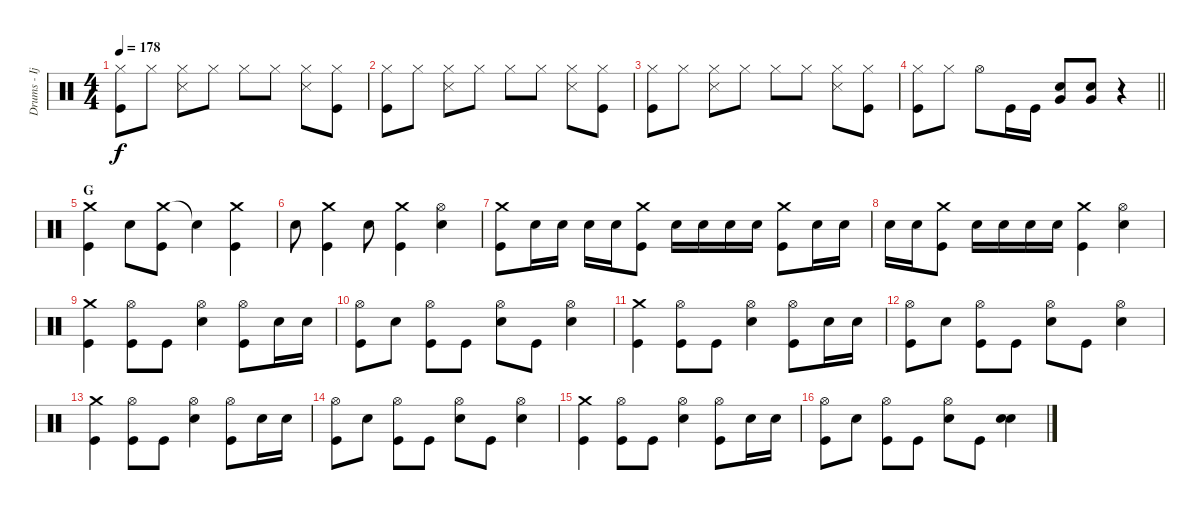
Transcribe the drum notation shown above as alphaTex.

\track ("Drums - Ijichi" "Drums - Ij") {instrument percussion}
\staff {score}
\articulation defaults
\ts (4 4)
\tempo 178
\clef neutral
\ks c
("Hi-Hat (closed)" "Kick (hit)").8{dy f} "Hi-Hat (closed)".8 ("Hi-Hat (closed)" "Snare (side stick) 3").8 "Hi-Hat (closed)".8 "Hi-Hat (closed)".8 "Hi-Hat (closed)".8 ("Hi-Hat (closed)" "Snare (side stick) 3").8 ("Hi-Hat (closed)" "Kick (hit)").8 |
("Hi-Hat (closed)" "Kick (hit)").8 "Hi-Hat (closed)".8 ("Hi-Hat (closed)" "Snare (side stick) 3").8 "Hi-Hat (closed)".8 "Hi-Hat (closed)".8 "Hi-Hat (closed)".8 ("Hi-Hat (closed)" "Snare (side stick) 3").8 ("Hi-Hat (closed)" "Kick (hit)").8 |
("Hi-Hat (closed)" "Kick (hit)").8 "Hi-Hat (closed)".8 ("Hi-Hat (closed)" "Snare (side stick) 3").8 "Hi-Hat (closed)".8 "Hi-Hat (closed)".8 "Hi-Hat (closed)".8 ("Hi-Hat (closed)" "Snare (side stick) 3").8 ("Hi-Hat (closed)" "Kick (hit)").8 |
\barLineRight lightlight
("Hi-Hat (closed)" "Kick (hit)").8 "Hi-Hat (closed)".8 "Hi-Hat (open)".8 "Kick (hit)".16 "Kick (hit)".16 ("Electric Snare (hit)" "Very Low Tom (hit)").8 ("Electric Snare (hit)" "Very Low Tom (hit)").8 r.4 |
\section ("" "G")
("Crash medium (hit)" "Kick (hit)").4 "Electric Snare (hit)".8 ("Crash medium (hit)" "Kick (hit)").8 "Snare (hit)"{t}.4 ("Crash medium (hit)" "Kick (hit)").4 |
"Electric Snare (hit)".8 ("Crash medium (hit)" "Kick (hit)").4 "Electric Snare (hit)".8 ("Crash medium (hit)" "Kick (hit)").4 ("Hi-Hat (open)" "Electric Snare (hit)").4 |
("Crash medium (hit)" "Kick (hit)").8 "Electric Snare (hit)".16 "Electric Snare (hit)".16 "Electric Snare (hit)".16 "Electric Snare (hit)".16 ("Crash medium (hit)" "Kick (hit)").8 "Electric Snare (hit)".16 "Electric Snare (hit)".16 "Electric Snare (hit)".16 "Electric Snare (hit)".16 ("Crash medium (hit)" "Kick (hit)").8 "Electric Snare (hit)".16 "Electric Snare (hit)".16 |
"Electric Snare (hit)".16 "Electric Snare (hit)".16 ("Crash medium (hit)" "Kick (hit)").8 "Electric Snare (hit)".16 "Electric Snare (hit)".16 "Electric Snare (hit)".16 "Electric Snare (hit)".16 ("Crash medium (hit)" "Kick (hit)").4 ("Hi-Hat (open)" "Electric Snare (hit)").4 |
("Crash medium (hit)" "Kick (hit)").4 ("Hi-Hat (open)" "Kick (hit)").8 "Kick (hit)".8 ("Hi-Hat (open)" "Electric Snare (hit)").4 ("Hi-Hat (open)" "Kick (hit)").8 "Electric Snare (hit)".16 "Electric Snare (hit)".16 |
("Hi-Hat (open)" "Kick (hit)").8 "Electric Snare (hit)".8 ("Hi-Hat (open)" "Kick (hit)").8 "Kick (hit)".8 ("Hi-Hat (open)" "Electric Snare (hit)").8 "Kick (hit)".8 ("Hi-Hat (open)" "Electric Snare (hit)").4 |
("Crash medium (hit)" "Kick (hit)").4 ("Hi-Hat (open)" "Kick (hit)").8 "Kick (hit)".8 ("Hi-Hat (open)" "Electric Snare (hit)").4 ("Hi-Hat (open)" "Kick (hit)").8 "Electric Snare (hit)".16 "Electric Snare (hit)".16 |
("Hi-Hat (open)" "Kick (hit)").8 "Electric Snare (hit)".8 ("Hi-Hat (open)" "Kick (hit)").8 "Kick (hit)".8 ("Hi-Hat (open)" "Electric Snare (hit)").8 "Kick (hit)".8 ("Hi-Hat (open)" "Electric Snare (hit)").4 |
("Crash medium (hit)" "Kick (hit)").4 ("Hi-Hat (open)" "Kick (hit)").8 "Kick (hit)".8 ("Hi-Hat (open)" "Electric Snare (hit)").4 ("Hi-Hat (open)" "Kick (hit)").8 "Electric Snare (hit)".16 "Electric Snare (hit)".16 |
("Hi-Hat (open)" "Kick (hit)").8 "Electric Snare (hit)".8 ("Hi-Hat (open)" "Kick (hit)").8 "Kick (hit)".8 ("Hi-Hat (open)" "Electric Snare (hit)").8 "Kick (hit)".8 ("Hi-Hat (open)" "Electric Snare (hit)").4 |
("Crash medium (hit)" "Kick (hit)").4 ("Hi-Hat (open)" "Kick (hit)").8 "Kick (hit)".8 ("Hi-Hat (open)" "Electric Snare (hit)").4 ("Hi-Hat (open)" "Kick (hit)").8 "Electric Snare (hit)".16 "Electric Snare (hit)".16 |
("Hi-Hat (open)" "Kick (hit)").8 "Electric Snare (hit)".8 ("Hi-Hat (open)" "Kick (hit)").8 "Kick (hit)".8 ("Hi-Hat (open)" "Electric Snare (hit)").8 "Kick (hit)".8 ("Electric Snare (hit)" "Electric Snare (hit)").4
